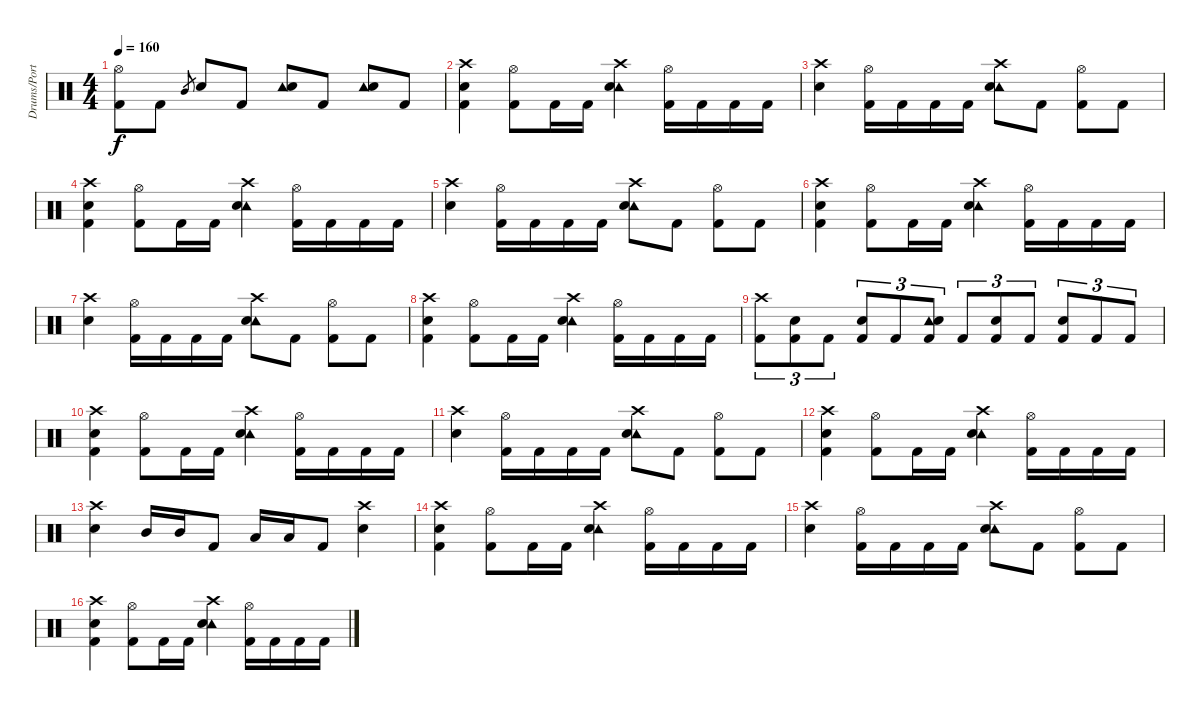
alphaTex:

\track ("Drums/Portnoy" "Drums/Port") {instrument percussion}
\staff {score}
\articulation defaults
\ts (4 4)
\tempo 160
\clef neutral
\ks c
("Hi-Hat (open)" "Kick (hit) 2").8{dy f} "Kick (hit) 2".8 "Mid Tom (hit)".8{gr} "Electric Snare (hit)".8 "Kick (hit) 2".8 ("Tambourine (hit)" "Electric Snare (hit)").8 "Kick (hit) 2".8 ("Tambourine (hit)" "Electric Snare (hit)").8 "Kick (hit) 2".8 |
("Crash high (hit)" "Electric Snare (hit)" "Kick (hit) 2").4 ("Hi-Hat (open)" "Kick (hit) 2").8 "Kick (hit) 2".16 "Kick (hit) 2".16 ("Crash high (hit)" "Tambourine (hit)" "Electric Snare (hit)").4 ("Hi-Hat (open)" "Kick (hit) 2").16 "Kick (hit) 2".16 "Kick (hit) 2".16 "Kick (hit) 2".16 |
("Crash high (hit)" "Electric Snare (hit)").4 ("Hi-Hat (open)" "Kick (hit) 2").16 "Kick (hit) 2".16 "Kick (hit) 2".16 "Kick (hit) 2".16 ("Crash high (hit)" "Tambourine (hit)" "Electric Snare (hit)").8 "Kick (hit) 2".8 ("Hi-Hat (open)" "Kick (hit) 2").8 "Kick (hit) 2".8 |
("Crash high (hit)" "Electric Snare (hit)" "Kick (hit) 2").4 ("Hi-Hat (open)" "Kick (hit) 2").8 "Kick (hit) 2".16 "Kick (hit) 2".16 ("Crash high (hit)" "Tambourine (hit)" "Electric Snare (hit)").4 ("Hi-Hat (open)" "Kick (hit) 2").16 "Kick (hit) 2".16 "Kick (hit) 2".16 "Kick (hit) 2".16 |
("Crash high (hit)" "Electric Snare (hit)").4 ("Hi-Hat (open)" "Kick (hit) 2").16 "Kick (hit) 2".16 "Kick (hit) 2".16 "Kick (hit) 2".16 ("Crash high (hit)" "Tambourine (hit)" "Electric Snare (hit)").8 "Kick (hit) 2".8 ("Hi-Hat (open)" "Kick (hit) 2").8 "Kick (hit) 2".8 |
("Crash high (hit)" "Electric Snare (hit)" "Kick (hit) 2").4 ("Hi-Hat (open)" "Kick (hit) 2").8 "Kick (hit) 2".16 "Kick (hit) 2".16 ("Crash high (hit)" "Tambourine (hit)" "Electric Snare (hit)").4 ("Hi-Hat (open)" "Kick (hit) 2").16 "Kick (hit) 2".16 "Kick (hit) 2".16 "Kick (hit) 2".16 |
("Crash high (hit)" "Electric Snare (hit)").4 ("Hi-Hat (open)" "Kick (hit) 2").16 "Kick (hit) 2".16 "Kick (hit) 2".16 "Kick (hit) 2".16 ("Crash high (hit)" "Tambourine (hit)" "Electric Snare (hit)").8 "Kick (hit) 2".8 ("Hi-Hat (open)" "Kick (hit) 2").8 "Kick (hit) 2".8 |
("Crash high (hit)" "Electric Snare (hit)" "Kick (hit) 2").4 ("Hi-Hat (open)" "Kick (hit) 2").8 "Kick (hit) 2".16 "Kick (hit) 2".16 ("Crash high (hit)" "Tambourine (hit)" "Electric Snare (hit)").4 ("Hi-Hat (open)" "Kick (hit) 2").16 "Kick (hit) 2".16 "Kick (hit) 2".16 "Kick (hit) 2".16 |
("Crash high (hit)" "Kick (hit) 2").8{tu (3 2)} ("Electric Snare (hit)" "Kick (hit) 2").8{tu (3 2)} "Kick (hit) 2".8{tu (3 2)} ("Electric Snare (hit)" "Kick (hit) 2").8{tu (3 2)} "Kick (hit) 2".8{tu (3 2)} ("Tambourine (hit)" "Electric Snare (hit)" "Kick (hit) 2").8{tu (3 2)} "Kick (hit) 2".8{tu (3 2)} ("Electric Snare (hit)" "Kick (hit) 2").8{tu (3 2)} "Kick (hit) 2".8{tu (3 2)} ("Electric Snare (hit)" "Kick (hit) 2").8{tu (3 2)} "Kick (hit) 2".8{tu (3 2)} "Kick (hit) 2".8{tu (3 2)} |
("Crash high (hit)" "Electric Snare (hit)" "Kick (hit) 2").4 ("Hi-Hat (open)" "Kick (hit) 2").8 "Kick (hit) 2".16 "Kick (hit) 2".16 ("Crash high (hit)" "Tambourine (hit)" "Electric Snare (hit)").4 ("Hi-Hat (open)" "Kick (hit) 2").16 "Kick (hit) 2".16 "Kick (hit) 2".16 "Kick (hit) 2".16 |
("Crash high (hit)" "Electric Snare (hit)").4 ("Hi-Hat (open)" "Kick (hit) 2").16 "Kick (hit) 2".16 "Kick (hit) 2".16 "Kick (hit) 2".16 ("Crash high (hit)" "Tambourine (hit)" "Electric Snare (hit)").8 "Kick (hit) 2".8 ("Hi-Hat (open)" "Kick (hit) 2").8 "Kick (hit) 2".8 |
("Crash high (hit)" "Electric Snare (hit)" "Kick (hit) 2").4 ("Hi-Hat (open)" "Kick (hit) 2").8 "Kick (hit) 2".16 "Kick (hit) 2".16 ("Crash high (hit)" "Tambourine (hit)" "Electric Snare (hit)").4 ("Hi-Hat (open)" "Kick (hit) 2").16 "Kick (hit) 2".16 "Kick (hit) 2".16 "Kick (hit) 2".16 |
("Crash high (hit)" "Electric Snare (hit)").4 "Mid Tom (hit)".16 "Mid Tom (hit)".16 "Kick (hit) 2".8 "Low Tom (hit)".16 "Low Tom (hit)".16 "Kick (hit) 2".8 ("Crash high (hit)" "Electric Snare (hit)").4 |
("Crash high (hit)" "Electric Snare (hit)" "Kick (hit) 2").4 ("Hi-Hat (open)" "Kick (hit) 2").8 "Kick (hit) 2".16 "Kick (hit) 2".16 ("Crash high (hit)" "Tambourine (hit)" "Electric Snare (hit)").4 ("Hi-Hat (open)" "Kick (hit) 2").16 "Kick (hit) 2".16 "Kick (hit) 2".16 "Kick (hit) 2".16 |
("Crash high (hit)" "Electric Snare (hit)").4 ("Hi-Hat (open)" "Kick (hit) 2").16 "Kick (hit) 2".16 "Kick (hit) 2".16 "Kick (hit) 2".16 ("Crash high (hit)" "Tambourine (hit)" "Electric Snare (hit)").8 "Kick (hit) 2".8 ("Hi-Hat (open)" "Kick (hit) 2").8 "Kick (hit) 2".8 |
("Crash high (hit)" "Electric Snare (hit)" "Kick (hit) 2").4 ("Hi-Hat (open)" "Kick (hit) 2").8 "Kick (hit) 2".16 "Kick (hit) 2".16 ("Crash high (hit)" "Tambourine (hit)" "Electric Snare (hit)").4 ("Hi-Hat (open)" "Kick (hit) 2").16 "Kick (hit) 2".16 "Kick (hit) 2".16 "Kick (hit) 2".16
